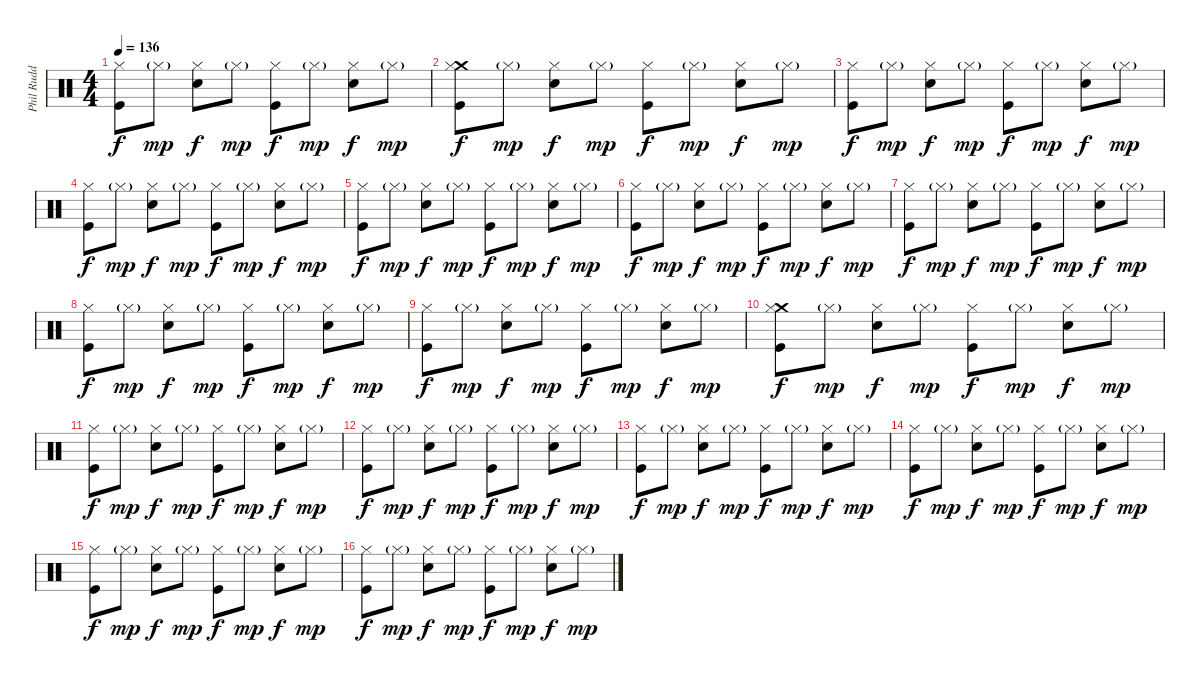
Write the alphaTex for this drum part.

\track ("Phil Rudd" "Phil Rudd") {instrument percussion}
\staff {score}
\articulation defaults
\ts (4 4)
\tempo 136
\clef neutral
\ks c
("Hi-Hat (closed)" "Kick (hit)").8{dy f} "Hi-Hat (closed)"{g}.8{dy mp} ("Hi-Hat (closed)" "Electric Snare (hit)").8{dy f} "Hi-Hat (closed)"{g}.8{dy mp} ("Hi-Hat (closed)" "Kick (hit)").8{dy f} "Hi-Hat (closed)"{g}.8{dy mp} ("Hi-Hat (closed)" "Electric Snare (hit)").8{dy f} "Hi-Hat (closed)"{g}.8{dy mp} |
("Crash medium (hit)" "Hi-Hat (closed)" "Kick (hit)").8{dy f} "Hi-Hat (closed)"{g}.8{dy mp} ("Hi-Hat (closed)" "Electric Snare (hit)").8{dy f} "Hi-Hat (closed)"{g}.8{dy mp} ("Hi-Hat (closed)" "Kick (hit)").8{dy f} "Hi-Hat (closed)"{g}.8{dy mp} ("Hi-Hat (closed)" "Electric Snare (hit)").8{dy f} "Hi-Hat (closed)"{g}.8{dy mp} |
("Hi-Hat (closed)" "Kick (hit)").8{dy f} "Hi-Hat (closed)"{g}.8{dy mp} ("Hi-Hat (closed)" "Electric Snare (hit)").8{dy f} "Hi-Hat (closed)"{g}.8{dy mp} ("Hi-Hat (closed)" "Kick (hit)").8{dy f} "Hi-Hat (closed)"{g}.8{dy mp} ("Hi-Hat (closed)" "Electric Snare (hit)").8{dy f} "Hi-Hat (closed)"{g}.8{dy mp} |
("Hi-Hat (closed)" "Kick (hit)").8{dy f} "Hi-Hat (closed)"{g}.8{dy mp} ("Hi-Hat (closed)" "Electric Snare (hit)").8{dy f} "Hi-Hat (closed)"{g}.8{dy mp} ("Hi-Hat (closed)" "Kick (hit)").8{dy f} "Hi-Hat (closed)"{g}.8{dy mp} ("Hi-Hat (closed)" "Electric Snare (hit)").8{dy f} "Hi-Hat (closed)"{g}.8{dy mp} |
("Hi-Hat (closed)" "Kick (hit)").8{dy f} "Hi-Hat (closed)"{g}.8{dy mp} ("Hi-Hat (closed)" "Electric Snare (hit)").8{dy f} "Hi-Hat (closed)"{g}.8{dy mp} ("Hi-Hat (closed)" "Kick (hit)").8{dy f} "Hi-Hat (closed)"{g}.8{dy mp} ("Hi-Hat (closed)" "Electric Snare (hit)").8{dy f} "Hi-Hat (closed)"{g}.8{dy mp} |
("Hi-Hat (closed)" "Kick (hit)").8{dy f} "Hi-Hat (closed)"{g}.8{dy mp} ("Hi-Hat (closed)" "Electric Snare (hit)").8{dy f} "Hi-Hat (closed)"{g}.8{dy mp} ("Hi-Hat (closed)" "Kick (hit)").8{dy f} "Hi-Hat (closed)"{g}.8{dy mp} ("Hi-Hat (closed)" "Electric Snare (hit)").8{dy f} "Hi-Hat (closed)"{g}.8{dy mp} |
("Hi-Hat (closed)" "Kick (hit)").8{dy f} "Hi-Hat (closed)"{g}.8{dy mp} ("Hi-Hat (closed)" "Electric Snare (hit)").8{dy f} "Hi-Hat (closed)"{g}.8{dy mp} ("Hi-Hat (closed)" "Kick (hit)").8{dy f} "Hi-Hat (closed)"{g}.8{dy mp} ("Hi-Hat (closed)" "Electric Snare (hit)").8{dy f} "Hi-Hat (closed)"{g}.8{dy mp} |
("Hi-Hat (closed)" "Kick (hit)").8{dy f} "Hi-Hat (closed)"{g}.8{dy mp} ("Hi-Hat (closed)" "Electric Snare (hit)").8{dy f} "Hi-Hat (closed)"{g}.8{dy mp} ("Hi-Hat (closed)" "Kick (hit)").8{dy f} "Hi-Hat (closed)"{g}.8{dy mp} ("Hi-Hat (closed)" "Electric Snare (hit)").8{dy f} "Hi-Hat (closed)"{g}.8{dy mp} |
("Hi-Hat (closed)" "Kick (hit)").8{dy f} "Hi-Hat (closed)"{g}.8{dy mp} ("Hi-Hat (closed)" "Electric Snare (hit)").8{dy f} "Hi-Hat (closed)"{g}.8{dy mp} ("Hi-Hat (closed)" "Kick (hit)").8{dy f} "Hi-Hat (closed)"{g}.8{dy mp} ("Hi-Hat (closed)" "Electric Snare (hit)").8{dy f} "Hi-Hat (closed)"{g}.8{dy mp} |
("Crash medium (hit)" "Hi-Hat (closed)" "Kick (hit)").8{dy f} "Hi-Hat (closed)"{g}.8{dy mp} ("Hi-Hat (closed)" "Electric Snare (hit)").8{dy f} "Hi-Hat (closed)"{g}.8{dy mp} ("Hi-Hat (closed)" "Kick (hit)").8{dy f} "Hi-Hat (closed)"{g}.8{dy mp} ("Hi-Hat (closed)" "Electric Snare (hit)").8{dy f} "Hi-Hat (closed)"{g}.8{dy mp} |
("Hi-Hat (closed)" "Kick (hit)").8{dy f} "Hi-Hat (closed)"{g}.8{dy mp} ("Hi-Hat (closed)" "Electric Snare (hit)").8{dy f} "Hi-Hat (closed)"{g}.8{dy mp} ("Hi-Hat (closed)" "Kick (hit)").8{dy f} "Hi-Hat (closed)"{g}.8{dy mp} ("Hi-Hat (closed)" "Electric Snare (hit)").8{dy f} "Hi-Hat (closed)"{g}.8{dy mp} |
("Hi-Hat (closed)" "Kick (hit)").8{dy f} "Hi-Hat (closed)"{g}.8{dy mp} ("Hi-Hat (closed)" "Electric Snare (hit)").8{dy f} "Hi-Hat (closed)"{g}.8{dy mp} ("Hi-Hat (closed)" "Kick (hit)").8{dy f} "Hi-Hat (closed)"{g}.8{dy mp} ("Hi-Hat (closed)" "Electric Snare (hit)").8{dy f} "Hi-Hat (closed)"{g}.8{dy mp} |
("Hi-Hat (closed)" "Kick (hit)").8{dy f} "Hi-Hat (closed)"{g}.8{dy mp} ("Hi-Hat (closed)" "Electric Snare (hit)").8{dy f} "Hi-Hat (closed)"{g}.8{dy mp} ("Hi-Hat (closed)" "Kick (hit)").8{dy f} "Hi-Hat (closed)"{g}.8{dy mp} ("Hi-Hat (closed)" "Electric Snare (hit)").8{dy f} "Hi-Hat (closed)"{g}.8{dy mp} |
("Hi-Hat (closed)" "Kick (hit)").8{dy f} "Hi-Hat (closed)"{g}.8{dy mp} ("Hi-Hat (closed)" "Electric Snare (hit)").8{dy f} "Hi-Hat (closed)"{g}.8{dy mp} ("Hi-Hat (closed)" "Kick (hit)").8{dy f} "Hi-Hat (closed)"{g}.8{dy mp} ("Hi-Hat (closed)" "Electric Snare (hit)").8{dy f} "Hi-Hat (closed)"{g}.8{dy mp} |
("Hi-Hat (closed)" "Kick (hit)").8{dy f} "Hi-Hat (closed)"{g}.8{dy mp} ("Hi-Hat (closed)" "Electric Snare (hit)").8{dy f} "Hi-Hat (closed)"{g}.8{dy mp} ("Hi-Hat (closed)" "Kick (hit)").8{dy f} "Hi-Hat (closed)"{g}.8{dy mp} ("Hi-Hat (closed)" "Electric Snare (hit)").8{dy f} "Hi-Hat (closed)"{g}.8{dy mp} |
("Hi-Hat (closed)" "Kick (hit)").8{dy f} "Hi-Hat (closed)"{g}.8{dy mp} ("Hi-Hat (closed)" "Electric Snare (hit)").8{dy f} "Hi-Hat (closed)"{g}.8{dy mp} ("Hi-Hat (closed)" "Kick (hit)").8{dy f} "Hi-Hat (closed)"{g}.8{dy mp} ("Hi-Hat (closed)" "Electric Snare (hit)").8{dy f} "Hi-Hat (closed)"{g}.8{dy mp}
